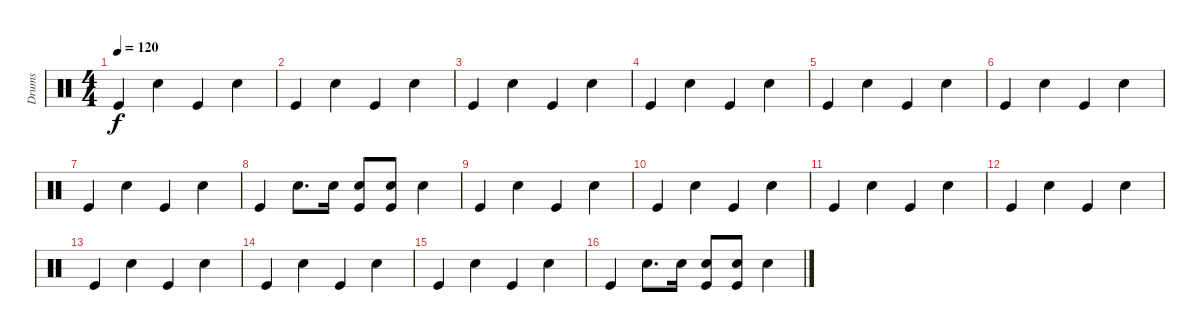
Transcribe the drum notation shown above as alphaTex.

\track ("Drums" "Drums") {instrument percussion}
\staff {score}
\articulation defaults
\ts (4 4)
\tempo 120
\clef neutral
\ks c "Kick (hit)".4{dy f} "Snare (hit) 2".4 "Kick (hit)".4 "Snare (hit) 2".4
|
"Kick (hit)".4 "Snare (hit) 2".4 "Kick (hit)".4 "Snare (hit) 2".4 |
"Kick (hit)".4 "Snare (hit) 2".4 "Kick (hit)".4 "Snare (hit) 2".4 |
"Kick (hit)".4 "Snare (hit) 2".4 "Kick (hit)".4 "Snare (hit) 2".4 |
"Kick (hit)".4 "Snare (hit) 2".4 "Kick (hit)".4 "Snare (hit) 2".4 |
"Kick (hit)".4 "Snare (hit) 2".4 "Kick (hit)".4 "Snare (hit) 2".4 |
"Kick (hit)".4 "Snare (hit) 2".4 "Kick (hit)".4 "Snare (hit) 2".4 |
"Kick (hit)".4 "Snare (hit) 2".8{d} "Snare (hit) 2".16 ("Snare (hit) 2" "Kick (hit)").8 ("Snare (hit) 2" "Kick (hit)").8 "Snare (hit) 2".4 |
"Kick (hit)".4 "Snare (hit) 2".4 "Kick (hit)".4 "Snare (hit) 2".4 |
"Kick (hit)".4 "Snare (hit) 2".4 "Kick (hit)".4 "Snare (hit) 2".4 |
"Kick (hit)".4 "Snare (hit) 2".4 "Kick (hit)".4 "Snare (hit) 2".4 |
"Kick (hit)".4 "Snare (hit) 2".4 "Kick (hit)".4 "Snare (hit) 2".4 |
"Kick (hit)".4 "Snare (hit) 2".4 "Kick (hit)".4 "Snare (hit) 2".4 |
"Kick (hit)".4 "Snare (hit) 2".4 "Kick (hit)".4 "Snare (hit) 2".4 |
"Kick (hit)".4 "Snare (hit) 2".4 "Kick (hit)".4 "Snare (hit) 2".4 |
"Kick (hit)".4 "Snare (hit) 2".8{d} "Snare (hit) 2".16 ("Snare (hit) 2" "Kick (hit)").8 ("Snare (hit) 2" "Kick (hit)").8 "Snare (hit) 2".4
